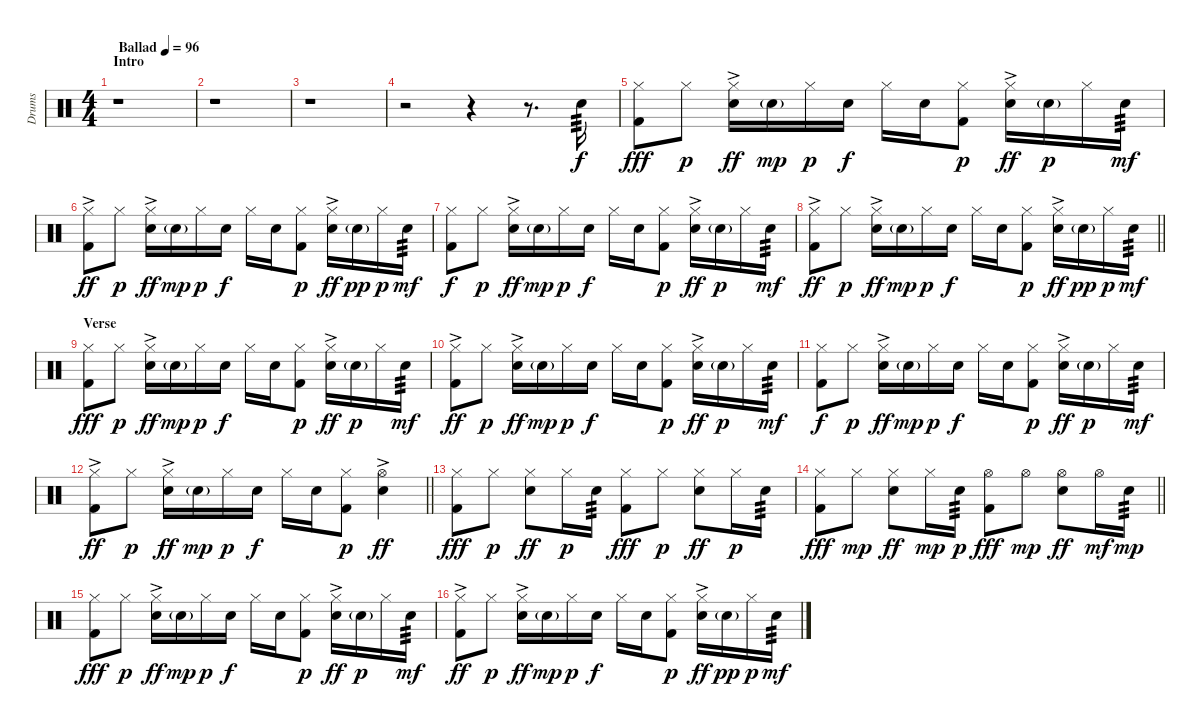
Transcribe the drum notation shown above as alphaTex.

\track ("Drums" "Drums") {instrument percussion}
\staff {score}
\articulation defaults
\ts (4 4)
\section ("" "Intro")
\tempo (96 "Ballad")
\clef neutral
\ks c
r.1{dy f} |
r.1 |
r.1 |
r.2 r.4 r.8{d} "Electric Snare (hit)".16{tp 3} |
("Hi-Hat (closed)" "Kick (hit) 2").8{dy fff} "Hi-Hat (closed)".8{dy p} ("Hi-Hat (closed)"{ac} "Electric Snare (hit)"{ac}).16{dy ff} "Electric Snare (hit)"{g}.16{dy mp} "Hi-Hat (closed)".16{dy p} "Electric Snare (hit)".16{dy f} "Hi-Hat (closed)".16 "Electric Snare (hit)".16 ("Hi-Hat (closed)" "Kick (hit) 2").8{dy p} ("Hi-Hat (closed)"{ac} "Electric Snare (hit)"{ac}).16{dy ff} "Electric Snare (hit)"{g}.16{dy p} "Hi-Hat (closed)".16 "Electric Snare (hit)".16{tp 3 dy mf} |
("Hi-Hat (closed)"{ac} "Kick (hit) 2").8{dy ff} "Hi-Hat (closed)".8{dy p} ("Hi-Hat (closed)"{ac} "Electric Snare (hit)"{ac}).16{dy ff} "Electric Snare (hit)"{g}.16{dy mp} "Hi-Hat (closed)".16{dy p} "Electric Snare (hit)".16{dy f} "Hi-Hat (closed)".16 "Electric Snare (hit)".16 ("Hi-Hat (closed)" "Kick (hit) 2").8{dy p} ("Hi-Hat (closed)"{ac} "Electric Snare (hit)"{ac}).16{dy ff} "Electric Snare (hit)"{g}.16{dy pp} "Hi-Hat (closed)".16{dy p} "Electric Snare (hit)".16{tp 3 dy mf} |
("Hi-Hat (closed)" "Kick (hit) 2").8{dy f} "Hi-Hat (closed)".8{dy p} ("Hi-Hat (closed)"{ac} "Electric Snare (hit)"{ac}).16{dy ff} "Electric Snare (hit)"{g}.16{dy mp} "Hi-Hat (closed)".16{dy p} "Electric Snare (hit)".16{dy f} "Hi-Hat (closed)".16 "Electric Snare (hit)".16 ("Hi-Hat (closed)" "Kick (hit) 2").8{dy p} ("Hi-Hat (closed)"{ac} "Electric Snare (hit)"{ac}).16{dy ff} "Electric Snare (hit)"{g}.16{dy p} "Hi-Hat (closed)".16 "Electric Snare (hit)".16{tp 3 dy mf} |
\barLineRight lightlight
("Hi-Hat (closed)"{ac} "Kick (hit) 2").8{dy ff} "Hi-Hat (closed)".8{dy p} ("Hi-Hat (closed)"{ac} "Electric Snare (hit)"{ac}).16{dy ff} "Electric Snare (hit)"{g}.16{dy mp} "Hi-Hat (closed)".16{dy p} "Electric Snare (hit)".16{dy f} "Hi-Hat (closed)".16 "Electric Snare (hit)".16 ("Hi-Hat (closed)" "Kick (hit) 2").8{dy p} ("Hi-Hat (closed)"{ac} "Electric Snare (hit)"{ac}).16{dy ff} "Electric Snare (hit)"{g}.16{dy pp} "Hi-Hat (closed)".16{dy p} "Electric Snare (hit)".16{tp 3 dy mf} |
\section ("" "Verse")
("Hi-Hat (closed)" "Kick (hit) 2").8{dy fff} "Hi-Hat (closed)".8{dy p} ("Hi-Hat (closed)"{ac} "Electric Snare (hit)"{ac}).16{dy ff} "Electric Snare (hit)"{g}.16{dy mp} "Hi-Hat (closed)".16{dy p} "Electric Snare (hit)".16{dy f} "Hi-Hat (closed)".16 "Electric Snare (hit)".16 ("Hi-Hat (closed)" "Kick (hit) 2").8{dy p} ("Hi-Hat (closed)"{ac} "Electric Snare (hit)"{ac}).16{dy ff} "Electric Snare (hit)"{g}.16{dy p} "Hi-Hat (closed)".16 "Electric Snare (hit)".16{tp 3 dy mf} |
("Hi-Hat (closed)"{ac} "Kick (hit) 2").8{dy ff} "Hi-Hat (closed)".8{dy p} ("Hi-Hat (closed)"{ac} "Electric Snare (hit)"{ac}).16{dy ff} "Electric Snare (hit)"{g}.16{dy mp} "Hi-Hat (closed)".16{dy p} "Electric Snare (hit)".16{dy f} "Hi-Hat (closed)".16 "Electric Snare (hit)".16 ("Hi-Hat (closed)" "Kick (hit) 2").8{dy p} ("Hi-Hat (closed)"{ac} "Electric Snare (hit)"{ac}).16{dy ff} "Electric Snare (hit)"{g}.16{dy p} "Hi-Hat (closed)".16 "Electric Snare (hit)".16{tp 3 dy mf} |
("Hi-Hat (closed)" "Kick (hit) 2").8{dy f} "Hi-Hat (closed)".8{dy p} ("Hi-Hat (closed)"{ac} "Electric Snare (hit)"{ac}).16{dy ff} "Electric Snare (hit)"{g}.16{dy mp} "Hi-Hat (closed)".16{dy p} "Electric Snare (hit)".16{dy f} "Hi-Hat (closed)".16 "Electric Snare (hit)".16 ("Hi-Hat (closed)" "Kick (hit) 2").8{dy p} ("Hi-Hat (closed)"{ac} "Electric Snare (hit)"{ac}).16{dy ff} "Electric Snare (hit)"{g}.16{dy p} "Hi-Hat (closed)".16 "Electric Snare (hit)".16{tp 3 dy mf} |
\barLineRight lightlight
("Hi-Hat (closed)"{ac} "Kick (hit) 2").8{dy ff} "Hi-Hat (closed)".8{dy p} ("Hi-Hat (closed)"{ac} "Electric Snare (hit)"{ac}).16{dy ff} "Electric Snare (hit)"{g}.16{dy mp} "Hi-Hat (closed)".16{dy p} "Electric Snare (hit)".16{dy f} "Hi-Hat (closed)".16 "Electric Snare (hit)".16 ("Hi-Hat (closed)" "Kick (hit) 2").8{dy p} ("Hi-Hat (open)"{ac} "Electric Snare (hit)"{ac}).4{dy ff} |
("Hi-Hat (closed)" "Kick (hit) 2").8{dy fff} "Hi-Hat (closed)".8{dy p} ("Hi-Hat (closed)" "Electric Snare (hit)").8{dy ff} "Hi-Hat (closed)".16{dy p} "Electric Snare (hit)".16{tp 3} ("Hi-Hat (closed)" "Kick (hit) 2").8{dy fff} "Hi-Hat (closed)".8{dy p} ("Hi-Hat (closed)" "Electric Snare (hit)").8{dy ff} "Hi-Hat (closed)".16{dy p} "Electric Snare (hit)".16{tp 3} |
\barLineRight lightlight
("Hi-Hat (closed)" "Kick (hit) 2").8{dy fff} "Hi-Hat (closed)".8{dy mp} ("Hi-Hat (closed)" "Electric Snare (hit)").8{dy ff} "Hi-Hat (closed)".16{dy mp} "Electric Snare (hit)".16{tp 3 dy p} ("Hi-Hat (open)" "Kick (hit) 2").8{dy fff} "Hi-Hat (open)".8{dy mp} ("Hi-Hat (open)" "Electric Snare (hit)").8{dy ff} "Hi-Hat (open)".16{dy mf} "Electric Snare (hit)".16{tp 3 dy mp} |
("Hi-Hat (closed)" "Kick (hit) 2").8{dy fff} "Hi-Hat (closed)".8{dy p} ("Hi-Hat (closed)"{ac} "Electric Snare (hit)"{ac}).16{dy ff} "Electric Snare (hit)"{g}.16{dy mp} "Hi-Hat (closed)".16{dy p} "Electric Snare (hit)".16{dy f} "Hi-Hat (closed)".16 "Electric Snare (hit)".16 ("Hi-Hat (closed)" "Kick (hit) 2").8{dy p} ("Hi-Hat (closed)"{ac} "Electric Snare (hit)"{ac}).16{dy ff} "Electric Snare (hit)"{g}.16{dy p} "Hi-Hat (closed)".16 "Electric Snare (hit)".16{tp 3 dy mf} |
("Hi-Hat (closed)"{ac} "Kick (hit) 2").8{dy ff} "Hi-Hat (closed)".8{dy p} ("Hi-Hat (closed)"{ac} "Electric Snare (hit)"{ac}).16{dy ff} "Electric Snare (hit)"{g}.16{dy mp} "Hi-Hat (closed)".16{dy p} "Electric Snare (hit)".16{dy f} "Hi-Hat (closed)".16 "Electric Snare (hit)".16 ("Hi-Hat (closed)" "Kick (hit) 2").8{dy p} ("Hi-Hat (closed)"{ac} "Electric Snare (hit)"{ac}).16{dy ff} "Electric Snare (hit)"{g}.16{dy pp} "Hi-Hat (closed)".16{dy p} "Electric Snare (hit)".16{tp 3 dy mf}
